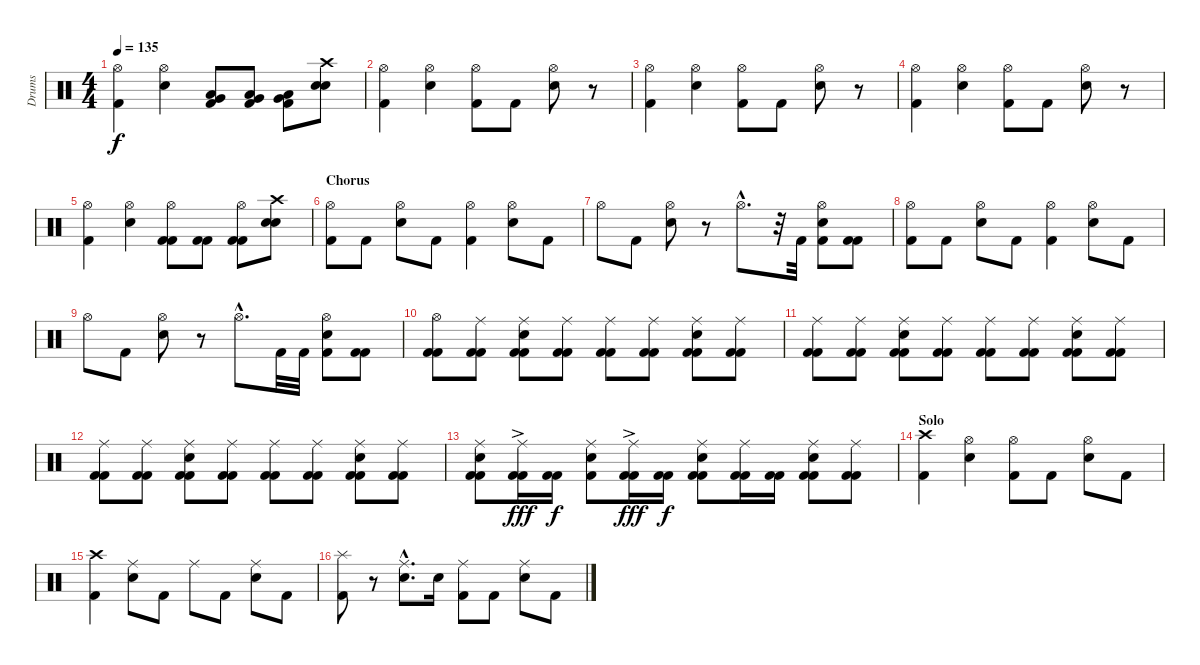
\track ("Drums" "Drums") {instrument percussion}
\staff {score}
\articulation defaults
\ts (4 4)
\tempo 135
\clef neutral
\ks c
("Hi-Hat (open)" "Kick (hit) 2").4{dy f} ("Hi-Hat (open)" "Electric Snare (hit)").4 ("Kick (hit) 2" "Low Tom (hit)" "Very Low Tom (hit)").8 ("Kick (hit) 2" "Low Tom (hit)" "Very Low Tom (hit)").8 ("Kick (hit) 2" "Low Tom (hit)" "Very Low Tom (hit)").8 ("Crash high (hit)" "Electric Snare (hit)" "Electric Snare (hit)").8 |
("Hi-Hat (open)" "Kick (hit) 2").4 ("Hi-Hat (open)" "Electric Snare (hit)").4 ("Hi-Hat (open)" "Kick (hit) 2").8 "Kick (hit) 2".8 ("Hi-Hat (open)" "Snare (hit) 2").8 r.8 |
("Hi-Hat (open)" "Kick (hit) 2").4 ("Hi-Hat (open)" "Electric Snare (hit)").4 ("Hi-Hat (open)" "Kick (hit) 2").8 "Kick (hit) 2".8 ("Hi-Hat (open)" "Snare (hit) 2").8 r.8 |
("Hi-Hat (open)" "Kick (hit) 2").4 ("Hi-Hat (open)" "Electric Snare (hit)").4 ("Hi-Hat (open)" "Kick (hit) 2").8 "Kick (hit) 2".8 ("Hi-Hat (open)" "Snare (hit) 2").8 r.8 |
("Hi-Hat (open)" "Kick (hit) 2").4 ("Hi-Hat (open)" "Electric Snare (hit)").4 ("Kick (hit) 2" "Kick (hit) 2" "Hi-Hat (open)").8 ("Kick (hit) 2" "Kick (hit) 2").8 ("Kick (hit) 2" "Kick (hit) 2" "Hi-Hat (open)").8 ("Crash high (hit)" "Electric Snare (hit)" "Electric Snare (hit)").8 |
\section ("" "Chorus")
("Hi-Hat (open)" "Kick (hit) 2").8 "Kick (hit) 2".8 ("Hi-Hat (open)" "Electric Snare (hit)").8 "Kick (hit) 2".8 ("Hi-Hat (open)" "Kick (hit) 2").4 ("Hi-Hat (open)" "Electric Snare (hit)").8 "Kick (hit) 2".8 |
"Hi-Hat (open)".8 "Kick (hit) 2".8 ("Hi-Hat (open)" "Electric Snare (hit)").8 r.8 "Hi-Hat (open)"{hac}.8{d} r.32 "Kick (hit) 2".32 ("Hi-Hat (open)" "Electric Snare (hit)" "Kick (hit) 2").8 ("Kick (hit) 2" "Kick (hit) 2").8 |
("Hi-Hat (open)" "Kick (hit) 2").8 "Kick (hit) 2".8 ("Hi-Hat (open)" "Electric Snare (hit)").8 "Kick (hit) 2".8 ("Hi-Hat (open)" "Kick (hit) 2").4 ("Hi-Hat (open)" "Electric Snare (hit)").8 "Kick (hit) 2".8 |
"Hi-Hat (open)".8 "Kick (hit) 2".8 ("Hi-Hat (open)" "Electric Snare (hit)").8 r.8 "Hi-Hat (open)"{hac}.8{d} "Kick (hit) 2".32 "Kick (hit) 2".32 ("Hi-Hat (open)" "Electric Snare (hit)" "Kick (hit) 2").8 ("Kick (hit) 2" "Kick (hit) 2").8 |
("Hi-Hat (open)" "Kick (hit) 2" "Kick (hit) 2").8 ("Ride (middle)" "Kick (hit) 2" "Kick (hit) 2").8 ("Ride (middle)" "Kick (hit) 2" "Electric Snare (hit)" "Kick (hit) 2").8 ("Ride (middle)" "Kick (hit) 2" "Kick (hit) 2").8 ("Ride (middle)" "Kick (hit) 2" "Kick (hit) 2").8 ("Ride (middle)" "Kick (hit) 2" "Kick (hit) 2").8 ("Ride (middle)" "Kick (hit) 2" "Electric Snare (hit)" "Kick (hit) 2").8 ("Ride (middle)" "Kick (hit) 2" "Kick (hit) 2").8 |
("Ride (middle)" "Kick (hit) 2" "Kick (hit) 2").8 ("Ride (middle)" "Kick (hit) 2" "Kick (hit) 2").8 ("Ride (middle)" "Kick (hit) 2" "Electric Snare (hit)" "Kick (hit) 2").8 ("Ride (middle)" "Kick (hit) 2" "Kick (hit) 2").8 ("Ride (middle)" "Kick (hit) 2" "Kick (hit) 2").8 ("Ride (middle)" "Kick (hit) 2" "Kick (hit) 2").8 ("Ride (middle)" "Kick (hit) 2" "Electric Snare (hit)" "Kick (hit) 2").8 ("Ride (middle)" "Kick (hit) 2" "Kick (hit) 2").8 |
("Ride (middle)" "Kick (hit) 2" "Kick (hit) 2").8 ("Ride (middle)" "Kick (hit) 2" "Kick (hit) 2").8 ("Ride (middle)" "Kick (hit) 2" "Electric Snare (hit)" "Kick (hit) 2").8 ("Ride (middle)" "Kick (hit) 2" "Kick (hit) 2").8 ("Ride (middle)" "Kick (hit) 2" "Kick (hit) 2").8 ("Ride (middle)" "Kick (hit) 2" "Kick (hit) 2").8 ("Ride (middle)" "Kick (hit) 2" "Electric Snare (hit)" "Kick (hit) 2").8 ("Ride (middle)" "Kick (hit) 2" "Kick (hit) 2").8 |
("Ride (middle)" "Electric Snare (hit)" "Kick (hit) 2" "Kick (hit) 2").8 ("Ride (middle)"{ac} "Kick (hit) 2" "Kick (hit) 2").16{dy fff} ("Kick (hit) 2" "Kick (hit) 2").16{dy f} ("Ride (middle)" "Electric Snare (hit)" "Kick (hit) 2").8 ("Ride (middle)"{ac} "Kick (hit) 2" "Kick (hit) 2").16{dy fff} ("Kick (hit) 2" "Kick (hit) 2").16{dy f} ("Ride (middle)" "Electric Snare (hit)" "Kick (hit) 2" "Kick (hit) 2").8 ("Ride (middle)" "Kick (hit) 2" "Kick (hit) 2").16 ("Kick (hit) 2" "Kick (hit) 2").16 ("Ride (middle)" "Kick (hit) 2" "Electric Snare (hit)" "Kick (hit) 2").8 ("Ride (middle)" "Kick (hit) 2" "Kick (hit) 2").8 |
\section ("" "Solo")
("Crash high (hit)" "Kick (hit) 2").4 ("Hi-Hat (open)" "Electric Snare (hit)").4 ("Hi-Hat (open)" "Kick (hit) 2").8 "Kick (hit) 2".8 ("Hi-Hat (open)" "Electric Snare (hit)").8 "Kick (hit) 2".8 |
("Crash high (hit)" "Kick (hit) 2").4 ("Ride (middle)" "Electric Snare (hit)").8 "Kick (hit) 2".8 "Ride (middle)".8 "Kick (hit) 2".8 ("Ride (middle)" "Electric Snare (hit)").8 "Kick (hit) 2".8 |
("Splash (hit)" "Kick (hit) 2").8 r.8 ("Ride (middle)"{hac} "Electric Snare (hit)"{hac}).8{d} "Electric Snare (hit)".16 ("Ride (middle)" "Kick (hit) 2").8 "Kick (hit) 2".8 ("Ride (middle)" "Electric Snare (hit)").8 "Kick (hit) 2".8
